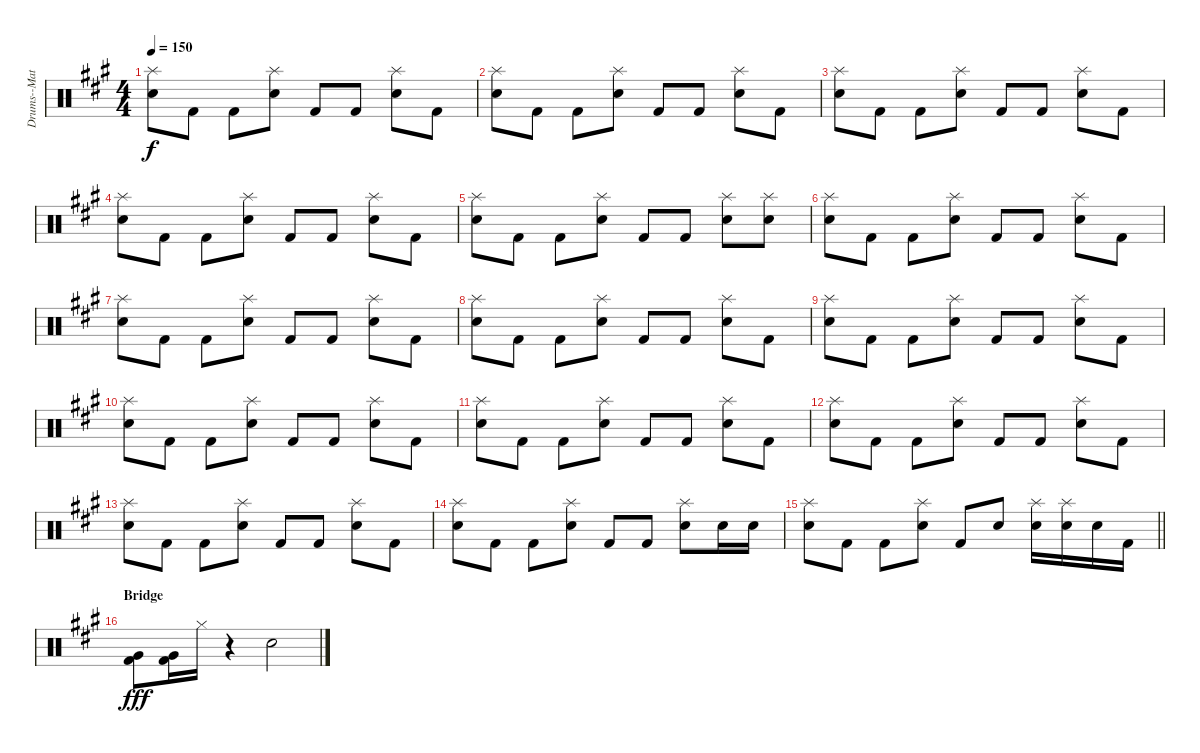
\track ("Drums--Matt Whalen" "Drums--Mat") {instrument percussion}
\staff {score}
\articulation defaults
\ts (4 4)
\tempo 150
\clef neutral
\ks a
("Snare (hit) 2" "Splash (hit)").8{dy f} "Kick (hit) 2".8 "Kick (hit) 2".8 ("Snare (hit) 2" "Splash (hit)").8 "Kick (hit) 2".8 "Kick (hit) 2".8 ("Snare (hit) 2" "Splash (hit)").8 "Kick (hit) 2".8 |
("Snare (hit) 2" "Splash (hit)").8 "Kick (hit) 2".8 "Kick (hit) 2".8 ("Snare (hit) 2" "Splash (hit)").8 "Kick (hit) 2".8 "Kick (hit) 2".8 ("Snare (hit) 2" "Splash (hit)").8 "Kick (hit) 2".8 |
("Snare (hit) 2" "Splash (hit)").8 "Kick (hit) 2".8 "Kick (hit) 2".8 ("Snare (hit) 2" "Splash (hit)").8 "Kick (hit) 2".8 "Kick (hit) 2".8 ("Snare (hit) 2" "Splash (hit)").8 "Kick (hit) 2".8 |
("Snare (hit) 2" "Splash (hit)").8 "Kick (hit) 2".8 "Kick (hit) 2".8 ("Snare (hit) 2" "Splash (hit)").8 "Kick (hit) 2".8 "Kick (hit) 2".8 ("Snare (hit) 2" "Splash (hit)").8 "Kick (hit) 2".8 |
("Snare (hit) 2" "Splash (hit)").8 "Kick (hit) 2".8 "Kick (hit) 2".8 ("Snare (hit) 2" "Splash (hit)").8 "Kick (hit) 2".8 "Kick (hit) 2".8 ("Snare (hit) 2" "Splash (hit)").8 ("Snare (hit) 2" "Splash (hit)").8 |
("Snare (hit) 2" "Splash (hit)").8 "Kick (hit) 2".8 "Kick (hit) 2".8 ("Snare (hit) 2" "Splash (hit)").8 "Kick (hit) 2".8 "Kick (hit) 2".8 ("Snare (hit) 2" "Splash (hit)").8 "Kick (hit) 2".8 |
("Snare (hit) 2" "Splash (hit)").8 "Kick (hit) 2".8 "Kick (hit) 2".8 ("Snare (hit) 2" "Splash (hit)").8 "Kick (hit) 2".8 "Kick (hit) 2".8 ("Snare (hit) 2" "Splash (hit)").8 "Kick (hit) 2".8 |
("Snare (hit) 2" "Splash (hit)").8 "Kick (hit) 2".8 "Kick (hit) 2".8 ("Snare (hit) 2" "Splash (hit)").8 "Kick (hit) 2".8 "Kick (hit) 2".8 ("Snare (hit) 2" "Splash (hit)").8 "Kick (hit) 2".8 |
("Snare (hit) 2" "Splash (hit)").8 "Kick (hit) 2".8 "Kick (hit) 2".8 ("Snare (hit) 2" "Splash (hit)").8 "Kick (hit) 2".8 "Kick (hit) 2".8 ("Snare (hit) 2" "Splash (hit)").8 "Kick (hit) 2".8 |
("Snare (hit) 2" "Splash (hit)").8 "Kick (hit) 2".8 "Kick (hit) 2".8 ("Snare (hit) 2" "Splash (hit)").8 "Kick (hit) 2".8 "Kick (hit) 2".8 ("Snare (hit) 2" "Splash (hit)").8 "Kick (hit) 2".8 |
("Snare (hit) 2" "Splash (hit)").8 "Kick (hit) 2".8 "Kick (hit) 2".8 ("Snare (hit) 2" "Splash (hit)").8 "Kick (hit) 2".8 "Kick (hit) 2".8 ("Snare (hit) 2" "Splash (hit)").8 "Kick (hit) 2".8 |
("Snare (hit) 2" "Splash (hit)").8 "Kick (hit) 2".8 "Kick (hit) 2".8 ("Snare (hit) 2" "Splash (hit)").8 "Kick (hit) 2".8 "Kick (hit) 2".8 ("Snare (hit) 2" "Splash (hit)").8 "Kick (hit) 2".8 |
("Snare (hit) 2" "Splash (hit)").8 "Kick (hit) 2".8 "Kick (hit) 2".8 ("Snare (hit) 2" "Splash (hit)").8 "Kick (hit) 2".8 "Kick (hit) 2".8 ("Snare (hit) 2" "Splash (hit)").8 "Kick (hit) 2".8 |
("Snare (hit) 2" "Splash (hit)").8 "Kick (hit) 2".8 "Kick (hit) 2".8 ("Snare (hit) 2" "Splash (hit)").8 "Kick (hit) 2".8 "Kick (hit) 2".8 ("Snare (hit) 2" "Splash (hit)").8 "Snare (hit) 2".16 "Snare (hit) 2".16 |
\barLineRight lightlight
("Snare (hit) 2" "Splash (hit)").8 "Kick (hit) 2".8 "Kick (hit) 2".8 ("Snare (hit) 2" "Splash (hit)").8 "Kick (hit) 2".8 "Snare (hit) 2".8 ("Snare (hit) 2" "Splash (hit)").16 ("Snare (hit) 2" "Splash (hit)").16 "Snare (hit) 2".16 "Kick (hit) 2".16 |
\section ("" "Bridge")
("Kick (hit) 2" "Very Low Tom (hit)").8{dy fff} ("Kick (hit) 2" "Very Low Tom (hit)").16 "Hi-Hat (closed)".16 r.4 "Snare (hit) 2".2
